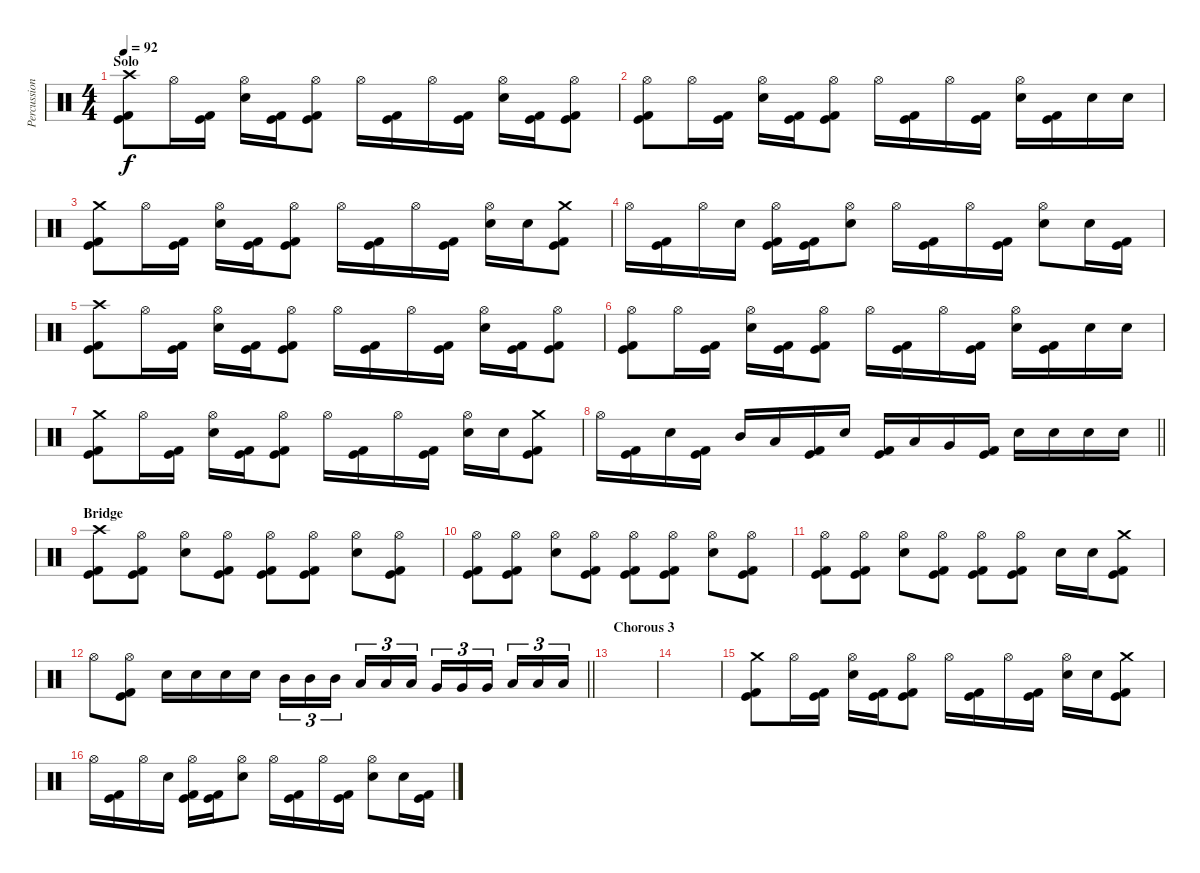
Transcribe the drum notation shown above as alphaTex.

\track ("Percussion" "Percussion") {instrument percussion}
\staff {score}
\articulation defaults
\ts (4 4)
\section ("" "Solo")
\tempo 92
\clef neutral
\ks c
("Crash high (hit)" "Kick (hit)" "Kick (hit) 2").8{dy f} "Hi-Hat (open)".16 ("Kick (hit)" "Kick (hit) 2").16 ("Hi-Hat (open)" "Electric Snare (hit)").16 ("Kick (hit)" "Kick (hit) 2").16 ("Hi-Hat (open)" "Kick (hit)" "Kick (hit) 2").8 "Hi-Hat (open)".16 ("Kick (hit)" "Kick (hit) 2").16 "Hi-Hat (open)".16 ("Kick (hit)" "Kick (hit) 2").16 ("Hi-Hat (open)" "Electric Snare (hit)").16 ("Kick (hit)" "Kick (hit) 2").16 ("Hi-Hat (open)" "Kick (hit)" "Kick (hit) 2").8 |
("Hi-Hat (open)" "Kick (hit)" "Kick (hit) 2").8 "Hi-Hat (open)".16 ("Kick (hit)" "Kick (hit) 2").16 ("Hi-Hat (open)" "Electric Snare (hit)").16 ("Kick (hit)" "Kick (hit) 2").16 ("Hi-Hat (open)" "Kick (hit)" "Kick (hit) 2").8 "Hi-Hat (open)".16 ("Kick (hit)" "Kick (hit) 2").16 "Hi-Hat (open)".16 ("Kick (hit)" "Kick (hit) 2").16 ("Hi-Hat (open)" "Electric Snare (hit)").16 ("Kick (hit)" "Kick (hit) 2").16 "Electric Snare (hit)".16 "Electric Snare (hit)".16 |
("Crash medium (hit)" "Kick (hit)" "Kick (hit) 2").8 "Hi-Hat (open)".16 ("Kick (hit)" "Kick (hit) 2").16 ("Hi-Hat (open)" "Electric Snare (hit)").16 ("Kick (hit)" "Kick (hit) 2").16 ("Hi-Hat (open)" "Kick (hit)" "Kick (hit) 2").8 "Hi-Hat (open)".16 ("Kick (hit)" "Kick (hit) 2").16 "Hi-Hat (open)".16 ("Kick (hit)" "Kick (hit) 2").16 ("Hi-Hat (open)" "Electric Snare (hit)").16 "Electric Snare (hit)".16 ("Crash medium (hit)" "Kick (hit)" "Kick (hit) 2").8 |
"Hi-Hat (open)".16 ("Kick (hit)" "Kick (hit) 2").16 "Hi-Hat (open)".16 "Electric Snare (hit)".16 ("Hi-Hat (open)" "Kick (hit)" "Kick (hit) 2").16 ("Kick (hit)" "Kick (hit) 2").16 ("Hi-Hat (open)" "Electric Snare (hit)").8 "Hi-Hat (open)".16 ("Kick (hit)" "Kick (hit) 2").16 "Hi-Hat (open)".16 ("Kick (hit)" "Kick (hit) 2").16 ("Hi-Hat (open)" "Electric Snare (hit)").8 "Electric Snare (hit)".16 ("Kick (hit)" "Kick (hit) 2").16 |
("Crash high (hit)" "Kick (hit)" "Kick (hit) 2").8 "Hi-Hat (open)".16 ("Kick (hit)" "Kick (hit) 2").16 ("Hi-Hat (open)" "Electric Snare (hit)").16 ("Kick (hit)" "Kick (hit) 2").16 ("Hi-Hat (open)" "Kick (hit)" "Kick (hit) 2").8 "Hi-Hat (open)".16 ("Kick (hit)" "Kick (hit) 2").16 "Hi-Hat (open)".16 ("Kick (hit)" "Kick (hit) 2").16 ("Hi-Hat (open)" "Electric Snare (hit)").16 ("Kick (hit)" "Kick (hit) 2").16 ("Hi-Hat (open)" "Kick (hit)" "Kick (hit) 2").8 |
("Hi-Hat (open)" "Kick (hit)" "Kick (hit) 2").8 "Hi-Hat (open)".16 ("Kick (hit)" "Kick (hit) 2").16 ("Hi-Hat (open)" "Electric Snare (hit)").16 ("Kick (hit)" "Kick (hit) 2").16 ("Hi-Hat (open)" "Kick (hit)" "Kick (hit) 2").8 "Hi-Hat (open)".16 ("Kick (hit)" "Kick (hit) 2").16 "Hi-Hat (open)".16 ("Kick (hit)" "Kick (hit) 2").16 ("Hi-Hat (open)" "Electric Snare (hit)").16 ("Kick (hit)" "Kick (hit) 2").16 "Electric Snare (hit)".16 "Electric Snare (hit)".16 |
("Crash medium (hit)" "Kick (hit)" "Kick (hit) 2").8 "Hi-Hat (open)".16 ("Kick (hit)" "Kick (hit) 2").16 ("Hi-Hat (open)" "Electric Snare (hit)").16 ("Kick (hit)" "Kick (hit) 2").16 ("Hi-Hat (open)" "Kick (hit)" "Kick (hit) 2").8 "Hi-Hat (open)".16 ("Kick (hit)" "Kick (hit) 2").16 "Hi-Hat (open)".16 ("Kick (hit)" "Kick (hit) 2").16 ("Hi-Hat (open)" "Electric Snare (hit)").16 "Electric Snare (hit)".16 ("Crash medium (hit)" "Kick (hit)" "Kick (hit) 2").8 |
\barLineRight lightlight "Hi-Hat (open)".16
("Kick (hit)" "Kick (hit) 2").16 "Electric Snare (hit)".16 ("Kick (hit)" "Kick (hit) 2").16 "Mid Tom (hit)".16 "Low Tom (hit)".16 ("Kick (hit)" "Kick (hit) 2").16 "Electric Snare (hit)".16 ("Kick (hit)" "Kick (hit) 2").16 "Low Tom (hit)".16 "Very Low Tom (hit)".16 ("Kick (hit)" "Kick (hit) 2").16 "Electric Snare (hit)".16 "Electric Snare (hit)".16 "Electric Snare (hit)".16 "Electric Snare (hit)".16 |
\section ("" "Bridge")
("Crash high (hit)" "Kick (hit)" "Kick (hit) 2").8 ("Hi-Hat (open)" "Kick (hit)" "Kick (hit) 2").8 ("Hi-Hat (open)" "Electric Snare (hit)").8 ("Hi-Hat (open)" "Kick (hit)" "Kick (hit) 2").8 ("Hi-Hat (open)" "Kick (hit)" "Kick (hit) 2").8 ("Hi-Hat (open)" "Kick (hit)" "Kick (hit) 2").8 ("Hi-Hat (open)" "Electric Snare (hit)").8 ("Hi-Hat (open)" "Kick (hit)" "Kick (hit) 2").8 |
("Hi-Hat (open)" "Kick (hit)" "Kick (hit) 2").8 ("Hi-Hat (open)" "Kick (hit)" "Kick (hit) 2").8 ("Hi-Hat (open)" "Electric Snare (hit)").8 ("Hi-Hat (open)" "Kick (hit)" "Kick (hit) 2").8 ("Hi-Hat (open)" "Kick (hit)" "Kick (hit) 2").8 ("Hi-Hat (open)" "Kick (hit)" "Kick (hit) 2").8 ("Hi-Hat (open)" "Electric Snare (hit)").8 ("Hi-Hat (open)" "Kick (hit)" "Kick (hit) 2").8 |
("Hi-Hat (open)" "Kick (hit)" "Kick (hit) 2").8 ("Hi-Hat (open)" "Kick (hit)" "Kick (hit) 2").8 ("Hi-Hat (open)" "Electric Snare (hit)").8 ("Hi-Hat (open)" "Kick (hit)" "Kick (hit) 2").8 ("Hi-Hat (open)" "Kick (hit)" "Kick (hit) 2").8 ("Hi-Hat (open)" "Kick (hit)" "Kick (hit) 2").8 "Electric Snare (hit)".16 "Electric Snare (hit)".16 ("Crash medium (hit)" "Kick (hit)" "Kick (hit) 2").8 |
\barLineRight lightlight "Hi-Hat (open)".8
("Hi-Hat (open)" "Kick (hit)" "Kick (hit) 2").8 "Electric Snare (hit)".16 "Electric Snare (hit)".16 "Electric Snare (hit)".16 "Electric Snare (hit)".16 "Mid Tom (hit)".16{tu (3 2)} "Mid Tom (hit)".16{tu (3 2)} "Mid Tom (hit)".16{tu (3 2) beam splitsecondary} "Low Tom (hit)".16{tu (3 2)} "Low Tom (hit)".16{tu (3 2)} "Low Tom (hit)".16{tu (3 2)} "Very Low Tom (hit)".16{tu (3 2)} "Very Low Tom (hit)".16{tu (3 2)} "Very Low Tom (hit)".16{tu (3 2) beam splitsecondary} "Low Floor Tom (hit)".16{tu (3 2)} "Low Floor Tom (hit)".16{tu (3 2)} "Low Floor Tom (hit)".16{tu (3 2)} |
\section ("" "Chorous 3")
|
|
("Crash medium (hit)" "Kick (hit)" "Kick (hit) 2").8 "Hi-Hat (open)".16 ("Kick (hit)" "Kick (hit) 2").16 ("Hi-Hat (open)" "Electric Snare (hit)").16 ("Kick (hit)" "Kick (hit) 2").16 ("Hi-Hat (open)" "Kick (hit)" "Kick (hit) 2").8 "Hi-Hat (open)".16 ("Kick (hit)" "Kick (hit) 2").16 "Hi-Hat (open)".16 ("Kick (hit)" "Kick (hit) 2").16 ("Hi-Hat (open)" "Electric Snare (hit)").16 "Electric Snare (hit)".16 ("Crash medium (hit)" "Kick (hit)" "Kick (hit) 2").8 |
"Hi-Hat (open)".16 ("Kick (hit)" "Kick (hit) 2").16 "Hi-Hat (open)".16 "Electric Snare (hit)".16 ("Hi-Hat (open)" "Kick (hit)" "Kick (hit) 2").16 ("Kick (hit)" "Kick (hit) 2").16 ("Hi-Hat (open)" "Electric Snare (hit)").8 "Hi-Hat (open)".16 ("Kick (hit)" "Kick (hit) 2").16 "Hi-Hat (open)".16 ("Kick (hit)" "Kick (hit) 2").16 ("Hi-Hat (open)" "Electric Snare (hit)").8 "Electric Snare (hit)".16 ("Kick (hit)" "Kick (hit) 2").16
